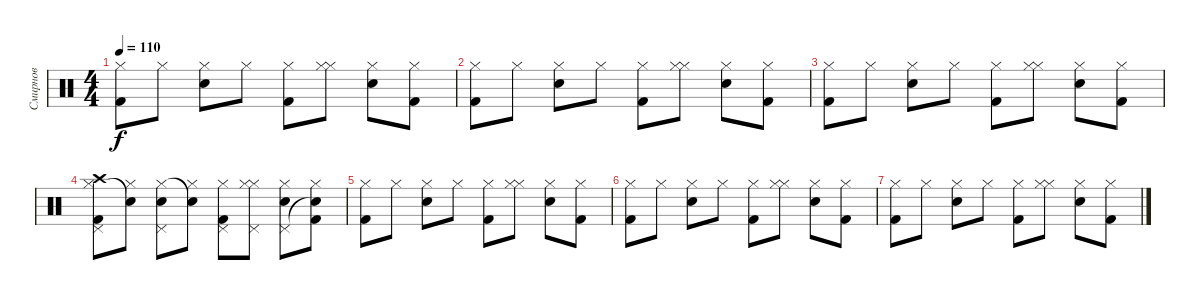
\track ("Смирнов" "Смирнов") {instrument percussion}
\staff {score}
\articulation defaults
\ts (4 4)
\tempo 110
\clef neutral
\ks c
("Kick (hit) 2" "Hi-Hat (closed)").8{dy f} "Hi-Hat (closed)".8 ("Snare (hit) 2" "Hi-Hat (closed)").8 "Hi-Hat (closed)".8 ("Kick (hit) 2" "Hi-Hat (closed)").8 ("Hi-Hat (closed)" "Hi-Hat (closed)").8 ("Snare (hit) 2" "Hi-Hat (closed)").8 ("Kick (hit) 2" "Hi-Hat (closed)").8 |
("Kick (hit) 2" "Hi-Hat (closed)").8 "Hi-Hat (closed)".8 ("Snare (hit) 2" "Hi-Hat (closed)").8 "Hi-Hat (closed)".8 ("Kick (hit) 2" "Hi-Hat (closed)").8 ("Hi-Hat (closed)" "Hi-Hat (closed)").8 ("Snare (hit) 2" "Hi-Hat (closed)").8 ("Kick (hit) 2" "Hi-Hat (closed)").8 |
("Kick (hit) 2" "Hi-Hat (closed)").8 "Hi-Hat (closed)".8 ("Snare (hit) 2" "Hi-Hat (closed)").8 "Hi-Hat (closed)".8 ("Kick (hit) 2" "Hi-Hat (closed)").8 ("Hi-Hat (closed)" "Hi-Hat (closed)").8 ("Snare (hit) 2" "Hi-Hat (closed)").8 ("Kick (hit) 2" "Hi-Hat (closed)").8 |
("Kick (hit) 2" "Hi-Hat (closed)" "Crash high (hit)" "Pedal Hi-Hat (hit)").8 ("Hi-Hat (closed)" "Snare (hit)"{t}).8 ("Snare (hit) 2" "Hi-Hat (closed)" "Pedal Hi-Hat (hit)").8 ("Hi-Hat (closed)" "Snare (hit)"{t}).8 ("Kick (hit) 2" "Hi-Hat (closed)" "Pedal Hi-Hat (hit)").8 ("Hi-Hat (closed)" "Hi-Hat (closed)" "Pedal Hi-Hat (hit)").8 ("Snare (hit) 2" "Hi-Hat (closed)" "Pedal Hi-Hat (hit)").8 ("Kick (hit) 2" "Hi-Hat (closed)" "Snare (hit)"{t}).8 |
("Kick (hit) 2" "Hi-Hat (closed)").8 "Hi-Hat (closed)".8 ("Snare (hit) 2" "Hi-Hat (closed)").8 "Hi-Hat (closed)".8 ("Kick (hit) 2" "Hi-Hat (closed)").8 ("Hi-Hat (closed)" "Hi-Hat (closed)").8 ("Snare (hit) 2" "Hi-Hat (closed)").8 ("Kick (hit) 2" "Hi-Hat (closed)").8 |
("Kick (hit) 2" "Hi-Hat (closed)").8 "Hi-Hat (closed)".8 ("Snare (hit) 2" "Hi-Hat (closed)").8 "Hi-Hat (closed)".8 ("Kick (hit) 2" "Hi-Hat (closed)").8 ("Hi-Hat (closed)" "Hi-Hat (closed)").8 ("Snare (hit) 2" "Hi-Hat (closed)").8 ("Kick (hit) 2" "Hi-Hat (closed)").8 |
("Kick (hit) 2" "Hi-Hat (closed)").8 "Hi-Hat (closed)".8 ("Snare (hit) 2" "Hi-Hat (closed)").8 "Hi-Hat (closed)".8 ("Kick (hit) 2" "Hi-Hat (closed)").8 ("Hi-Hat (closed)" "Hi-Hat (closed)").8 ("Snare (hit) 2" "Hi-Hat (closed)").8 ("Kick (hit) 2" "Hi-Hat (closed)").8
